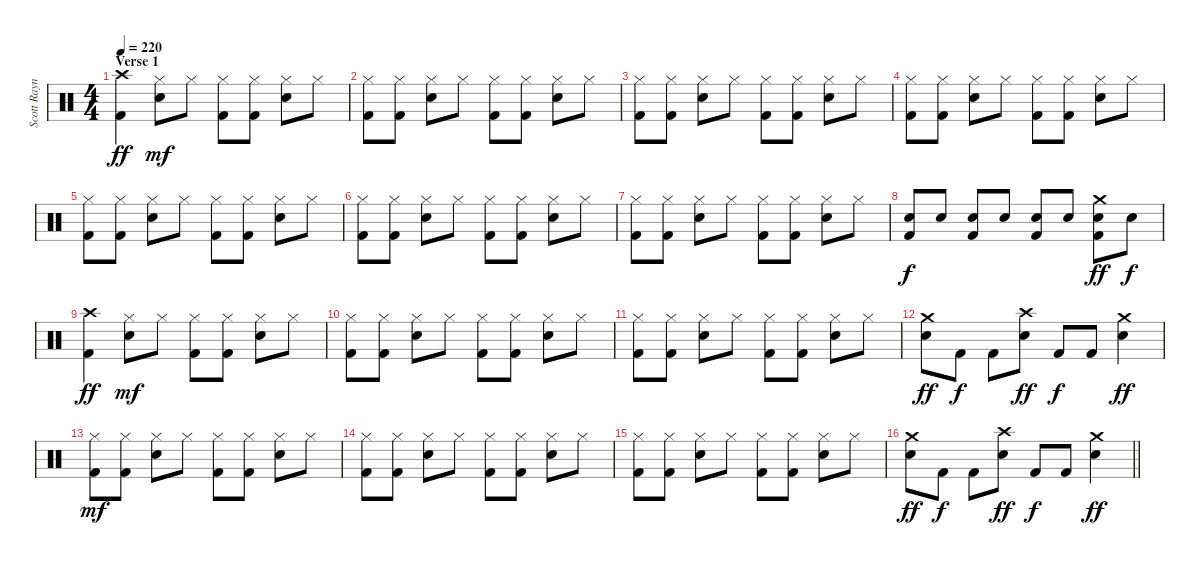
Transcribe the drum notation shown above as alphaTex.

\track ("Scott Raynor - Drums" "Scott Rayn") {instrument percussion}
\staff {score}
\articulation defaults
\ts (4 4)
\section ("" "Verse 1")
\tempo 220
\clef neutral
\ks c
("Crash high (hit)" "Kick (hit) 2").4{dy ff} ("Hi-Hat (closed)" "Electric Snare (hit)").8{dy mf} "Hi-Hat (closed)".8 ("Hi-Hat (closed)" "Kick (hit) 2").8 ("Hi-Hat (closed)" "Kick (hit) 2").8 ("Hi-Hat (closed)" "Electric Snare (hit)").8 "Hi-Hat (closed)".8 |
("Hi-Hat (closed)" "Kick (hit) 2").8 ("Hi-Hat (closed)" "Kick (hit) 2").8 ("Hi-Hat (closed)" "Electric Snare (hit)").8 "Hi-Hat (closed)".8 ("Hi-Hat (closed)" "Kick (hit) 2").8 ("Hi-Hat (closed)" "Kick (hit) 2").8 ("Hi-Hat (closed)" "Electric Snare (hit)").8 "Hi-Hat (closed)".8 |
("Hi-Hat (closed)" "Kick (hit) 2").8 ("Hi-Hat (closed)" "Kick (hit) 2").8 ("Hi-Hat (closed)" "Electric Snare (hit)").8 "Hi-Hat (closed)".8 ("Hi-Hat (closed)" "Kick (hit) 2").8 ("Hi-Hat (closed)" "Kick (hit) 2").8 ("Hi-Hat (closed)" "Electric Snare (hit)").8 "Hi-Hat (closed)".8 |
("Hi-Hat (closed)" "Kick (hit) 2").8 ("Hi-Hat (closed)" "Kick (hit) 2").8 ("Hi-Hat (closed)" "Electric Snare (hit)").8 "Hi-Hat (closed)".8 ("Hi-Hat (closed)" "Kick (hit) 2").8 ("Hi-Hat (closed)" "Kick (hit) 2").8 ("Hi-Hat (closed)" "Electric Snare (hit)").8 "Hi-Hat (closed)".8 |
("Hi-Hat (closed)" "Kick (hit) 2").8 ("Hi-Hat (closed)" "Kick (hit) 2").8 ("Hi-Hat (closed)" "Electric Snare (hit)").8 "Hi-Hat (closed)".8 ("Hi-Hat (closed)" "Kick (hit) 2").8 ("Hi-Hat (closed)" "Kick (hit) 2").8 ("Hi-Hat (closed)" "Electric Snare (hit)").8 "Hi-Hat (closed)".8 |
("Hi-Hat (closed)" "Kick (hit) 2").8 ("Hi-Hat (closed)" "Kick (hit) 2").8 ("Hi-Hat (closed)" "Electric Snare (hit)").8 "Hi-Hat (closed)".8 ("Hi-Hat (closed)" "Kick (hit) 2").8 ("Hi-Hat (closed)" "Kick (hit) 2").8 ("Hi-Hat (closed)" "Electric Snare (hit)").8 "Hi-Hat (closed)".8 |
("Hi-Hat (closed)" "Kick (hit) 2").8 ("Hi-Hat (closed)" "Kick (hit) 2").8 ("Hi-Hat (closed)" "Electric Snare (hit)").8 "Hi-Hat (closed)".8 ("Hi-Hat (closed)" "Kick (hit) 2").8 ("Hi-Hat (closed)" "Kick (hit) 2").8 ("Hi-Hat (closed)" "Electric Snare (hit)").8 "Hi-Hat (closed)".8 |
("Electric Snare (hit)" "Kick (hit) 2").8{dy f} "Electric Snare (hit)".8 ("Electric Snare (hit)" "Kick (hit) 2").8 "Electric Snare (hit)".8 ("Electric Snare (hit)" "Kick (hit) 2").8 "Electric Snare (hit)".8 ("Crash medium (hit)" "Electric Snare (hit)" "Kick (hit) 2").8{dy ff} "Electric Snare (hit)".8{dy f} |
("Crash high (hit)" "Kick (hit) 2").4{dy ff} ("Hi-Hat (closed)" "Electric Snare (hit)").8{dy mf} "Hi-Hat (closed)".8 ("Hi-Hat (closed)" "Kick (hit) 2").8 ("Hi-Hat (closed)" "Kick (hit) 2").8 ("Hi-Hat (closed)" "Electric Snare (hit)").8 "Hi-Hat (closed)".8 |
("Hi-Hat (closed)" "Kick (hit) 2").8 ("Hi-Hat (closed)" "Kick (hit) 2").8 ("Hi-Hat (closed)" "Electric Snare (hit)").8 "Hi-Hat (closed)".8 ("Hi-Hat (closed)" "Kick (hit) 2").8 ("Hi-Hat (closed)" "Kick (hit) 2").8 ("Hi-Hat (closed)" "Electric Snare (hit)").8 "Hi-Hat (closed)".8 |
("Hi-Hat (closed)" "Kick (hit) 2").8 ("Hi-Hat (closed)" "Kick (hit) 2").8 ("Hi-Hat (closed)" "Electric Snare (hit)").8 "Hi-Hat (closed)".8 ("Hi-Hat (closed)" "Kick (hit) 2").8 ("Hi-Hat (closed)" "Kick (hit) 2").8 ("Hi-Hat (closed)" "Electric Snare (hit)").8 "Hi-Hat (closed)".8 |
("Crash medium (hit)" "Electric Snare (hit)").8{dy ff} "Kick (hit) 2".8{dy f} "Kick (hit) 2".8 ("Crash high (hit)" "Electric Snare (hit)").8{dy ff} "Kick (hit) 2".8{dy f} "Kick (hit) 2".8 ("Crash medium (hit)" "Electric Snare (hit)").4{dy ff} |
("Hi-Hat (closed)" "Kick (hit) 2").8{dy mf} ("Hi-Hat (closed)" "Kick (hit) 2").8 ("Hi-Hat (closed)" "Electric Snare (hit)").8 "Hi-Hat (closed)".8 ("Hi-Hat (closed)" "Kick (hit) 2").8 ("Hi-Hat (closed)" "Kick (hit) 2").8 ("Hi-Hat (closed)" "Electric Snare (hit)").8 "Hi-Hat (closed)".8 |
("Hi-Hat (closed)" "Kick (hit) 2").8 ("Hi-Hat (closed)" "Kick (hit) 2").8 ("Hi-Hat (closed)" "Electric Snare (hit)").8 "Hi-Hat (closed)".8 ("Hi-Hat (closed)" "Kick (hit) 2").8 ("Hi-Hat (closed)" "Kick (hit) 2").8 ("Hi-Hat (closed)" "Electric Snare (hit)").8 "Hi-Hat (closed)".8 |
("Hi-Hat (closed)" "Kick (hit) 2").8 ("Hi-Hat (closed)" "Kick (hit) 2").8 ("Hi-Hat (closed)" "Electric Snare (hit)").8 "Hi-Hat (closed)".8 ("Hi-Hat (closed)" "Kick (hit) 2").8 ("Hi-Hat (closed)" "Kick (hit) 2").8 ("Hi-Hat (closed)" "Electric Snare (hit)").8 "Hi-Hat (closed)".8 |
\barLineRight lightlight
("Crash medium (hit)" "Electric Snare (hit)").8{dy ff} "Kick (hit) 2".8{dy f} "Kick (hit) 2".8 ("Crash high (hit)" "Electric Snare (hit)").8{dy ff} "Kick (hit) 2".8{dy f} "Kick (hit) 2".8 ("Crash medium (hit)" "Electric Snare (hit)").4{dy ff}
